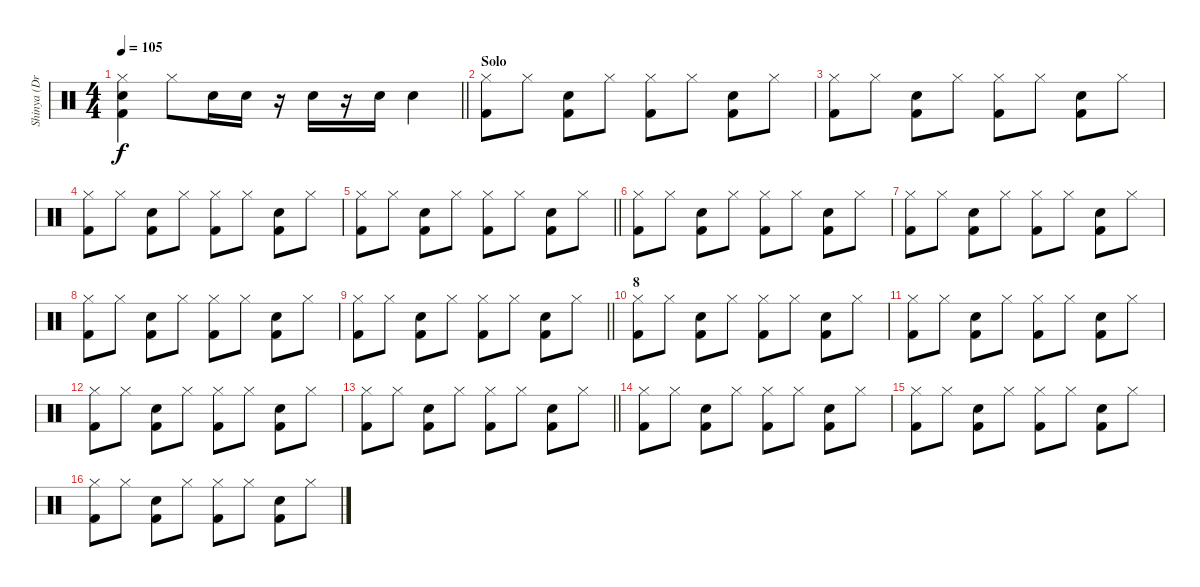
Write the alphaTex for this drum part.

\track ("Shinya (Drums)" "Shinya (Dr") {instrument percussion}
\staff {score}
\articulation defaults
\ts (4 4)
\tempo 105
\clef neutral
\barLineRight lightlight
\ks c
("Hi-Hat (closed)" "Snare (hit) 2" "Kick (hit) 2").4{dy f} "Hi-Hat (closed)".8 "Snare (hit) 2".16 "Snare (hit) 2".16 r.16 "Snare (hit) 2".16 r.16 "Snare (hit) 2".16 "Snare (hit) 2".4 |
\section ("" "Solo")
("Hi-Hat (closed)" "Kick (hit) 2").8 "Hi-Hat (closed)".8 ("Snare (hit) 2" "Kick (hit) 2").8 "Hi-Hat (closed)".8 ("Hi-Hat (closed)" "Kick (hit) 2").8 "Hi-Hat (closed)".8 ("Snare (hit) 2" "Kick (hit) 2").8 "Hi-Hat (closed)".8 |
("Hi-Hat (closed)" "Kick (hit) 2").8 "Hi-Hat (closed)".8 ("Snare (hit) 2" "Kick (hit) 2").8 "Hi-Hat (closed)".8 ("Hi-Hat (closed)" "Kick (hit) 2").8 "Hi-Hat (closed)".8 ("Snare (hit) 2" "Kick (hit) 2").8 "Hi-Hat (closed)".8 |
("Hi-Hat (closed)" "Kick (hit) 2").8 "Hi-Hat (closed)".8 ("Snare (hit) 2" "Kick (hit) 2").8 "Hi-Hat (closed)".8 ("Hi-Hat (closed)" "Kick (hit) 2").8 "Hi-Hat (closed)".8 ("Snare (hit) 2" "Kick (hit) 2").8 "Hi-Hat (closed)".8 |
\barLineRight lightlight
("Hi-Hat (closed)" "Kick (hit) 2").8 "Hi-Hat (closed)".8 ("Snare (hit) 2" "Kick (hit) 2").8 "Hi-Hat (closed)".8 ("Hi-Hat (closed)" "Kick (hit) 2").8 "Hi-Hat (closed)".8 ("Snare (hit) 2" "Kick (hit) 2").8 "Hi-Hat (closed)".8 |
("Hi-Hat (closed)" "Kick (hit) 2").8 "Hi-Hat (closed)".8 ("Snare (hit) 2" "Kick (hit) 2").8 "Hi-Hat (closed)".8 ("Hi-Hat (closed)" "Kick (hit) 2").8 "Hi-Hat (closed)".8 ("Snare (hit) 2" "Kick (hit) 2").8 "Hi-Hat (closed)".8 |
("Hi-Hat (closed)" "Kick (hit) 2").8 "Hi-Hat (closed)".8 ("Snare (hit) 2" "Kick (hit) 2").8 "Hi-Hat (closed)".8 ("Hi-Hat (closed)" "Kick (hit) 2").8 "Hi-Hat (closed)".8 ("Snare (hit) 2" "Kick (hit) 2").8 "Hi-Hat (closed)".8 |
("Hi-Hat (closed)" "Kick (hit) 2").8 "Hi-Hat (closed)".8 ("Snare (hit) 2" "Kick (hit) 2").8 "Hi-Hat (closed)".8 ("Hi-Hat (closed)" "Kick (hit) 2").8 "Hi-Hat (closed)".8 ("Snare (hit) 2" "Kick (hit) 2").8 "Hi-Hat (closed)".8 |
\barLineRight lightlight
("Hi-Hat (closed)" "Kick (hit) 2").8 "Hi-Hat (closed)".8 ("Snare (hit) 2" "Kick (hit) 2").8 "Hi-Hat (closed)".8 ("Hi-Hat (closed)" "Kick (hit) 2").8 "Hi-Hat (closed)".8 ("Snare (hit) 2" "Kick (hit) 2").8 "Hi-Hat (closed)".8 |
\section ("" "8")
("Hi-Hat (closed)" "Kick (hit) 2").8 "Hi-Hat (closed)".8 ("Snare (hit) 2" "Kick (hit) 2").8 "Hi-Hat (closed)".8 ("Hi-Hat (closed)" "Kick (hit) 2").8 "Hi-Hat (closed)".8 ("Snare (hit) 2" "Kick (hit) 2").8 "Hi-Hat (closed)".8 |
("Hi-Hat (closed)" "Kick (hit) 2").8 "Hi-Hat (closed)".8 ("Snare (hit) 2" "Kick (hit) 2").8 "Hi-Hat (closed)".8 ("Hi-Hat (closed)" "Kick (hit) 2").8 "Hi-Hat (closed)".8 ("Snare (hit) 2" "Kick (hit) 2").8 "Hi-Hat (closed)".8 |
("Hi-Hat (closed)" "Kick (hit) 2").8 "Hi-Hat (closed)".8 ("Snare (hit) 2" "Kick (hit) 2").8 "Hi-Hat (closed)".8 ("Hi-Hat (closed)" "Kick (hit) 2").8 "Hi-Hat (closed)".8 ("Snare (hit) 2" "Kick (hit) 2").8 "Hi-Hat (closed)".8 |
\barLineRight lightlight
("Hi-Hat (closed)" "Kick (hit) 2").8 "Hi-Hat (closed)".8 ("Snare (hit) 2" "Kick (hit) 2").8 "Hi-Hat (closed)".8 ("Hi-Hat (closed)" "Kick (hit) 2").8 "Hi-Hat (closed)".8 ("Snare (hit) 2" "Kick (hit) 2").8 "Hi-Hat (closed)".8 |
("Hi-Hat (closed)" "Kick (hit) 2").8 "Hi-Hat (closed)".8 ("Snare (hit) 2" "Kick (hit) 2").8 "Hi-Hat (closed)".8 ("Hi-Hat (closed)" "Kick (hit) 2").8 "Hi-Hat (closed)".8 ("Snare (hit) 2" "Kick (hit) 2").8 "Hi-Hat (closed)".8 |
("Hi-Hat (closed)" "Kick (hit) 2").8 "Hi-Hat (closed)".8 ("Snare (hit) 2" "Kick (hit) 2").8 "Hi-Hat (closed)".8 ("Hi-Hat (closed)" "Kick (hit) 2").8 "Hi-Hat (closed)".8 ("Snare (hit) 2" "Kick (hit) 2").8 "Hi-Hat (closed)".8 |
("Hi-Hat (closed)" "Kick (hit) 2").8 "Hi-Hat (closed)".8 ("Snare (hit) 2" "Kick (hit) 2").8 "Hi-Hat (closed)".8 ("Hi-Hat (closed)" "Kick (hit) 2").8 "Hi-Hat (closed)".8 ("Snare (hit) 2" "Kick (hit) 2").8 "Hi-Hat (closed)".8
